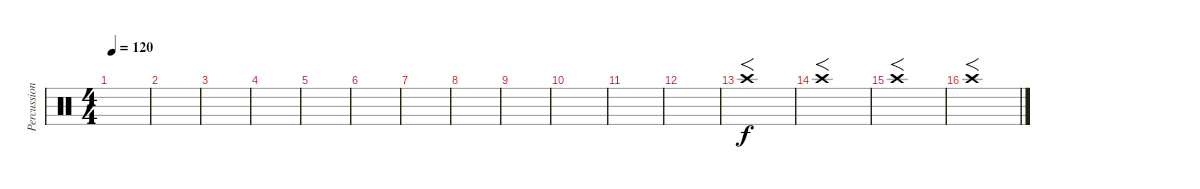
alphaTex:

\track ("Percussion" "Percussion") {instrument percussion}
\staff {score}
\articulation defaults
\ts (4 4)
\tempo 120
\clef neutral
\ks c
|
|
|
|
|
|
|
|
|
|
|
|
"Crash high (hit)".1{f volume 16 balance 0} |
"Crash high (hit)".1{f volume 16 balance 16} |
"Crash high (hit)".1{f volume 16 balance 0} |
"Crash high (hit)".1{f volume 16 balance 16}
